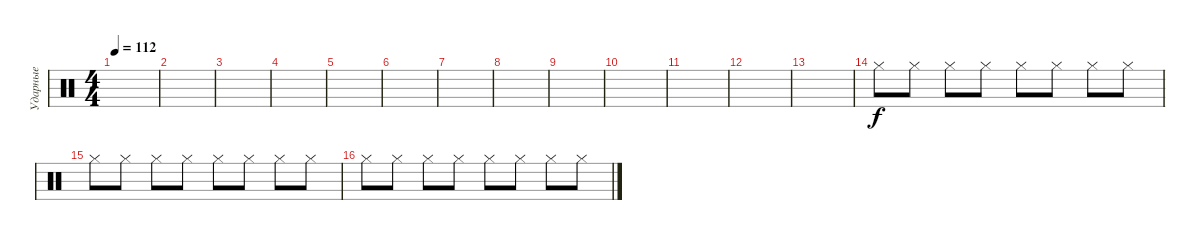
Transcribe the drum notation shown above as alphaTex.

\track ("Ударные" "Ударные") {instrument percussion}
\staff {score}
\articulation defaults
\ts (4 4)
\tempo 112
\clef neutral
\ks c
|
|
|
|
|
|
|
|
|
|
|
|
|
"Hi-Hat (closed)".8 "Hi-Hat (closed)".8 "Hi-Hat (closed)".8 "Hi-Hat (closed)".8 "Hi-Hat (closed)".8 "Hi-Hat (closed)".8 "Hi-Hat (closed)".8 "Hi-Hat (closed)".8 |
"Hi-Hat (closed)".8 "Hi-Hat (closed)".8 "Hi-Hat (closed)".8 "Hi-Hat (closed)".8 "Hi-Hat (closed)".8 "Hi-Hat (closed)".8 "Hi-Hat (closed)".8 "Hi-Hat (closed)".8 |
"Hi-Hat (closed)".8 "Hi-Hat (closed)".8 "Hi-Hat (closed)".8 "Hi-Hat (closed)".8 "Hi-Hat (closed)".8 "Hi-Hat (closed)".8 "Hi-Hat (closed)".8 "Hi-Hat (closed)".8
